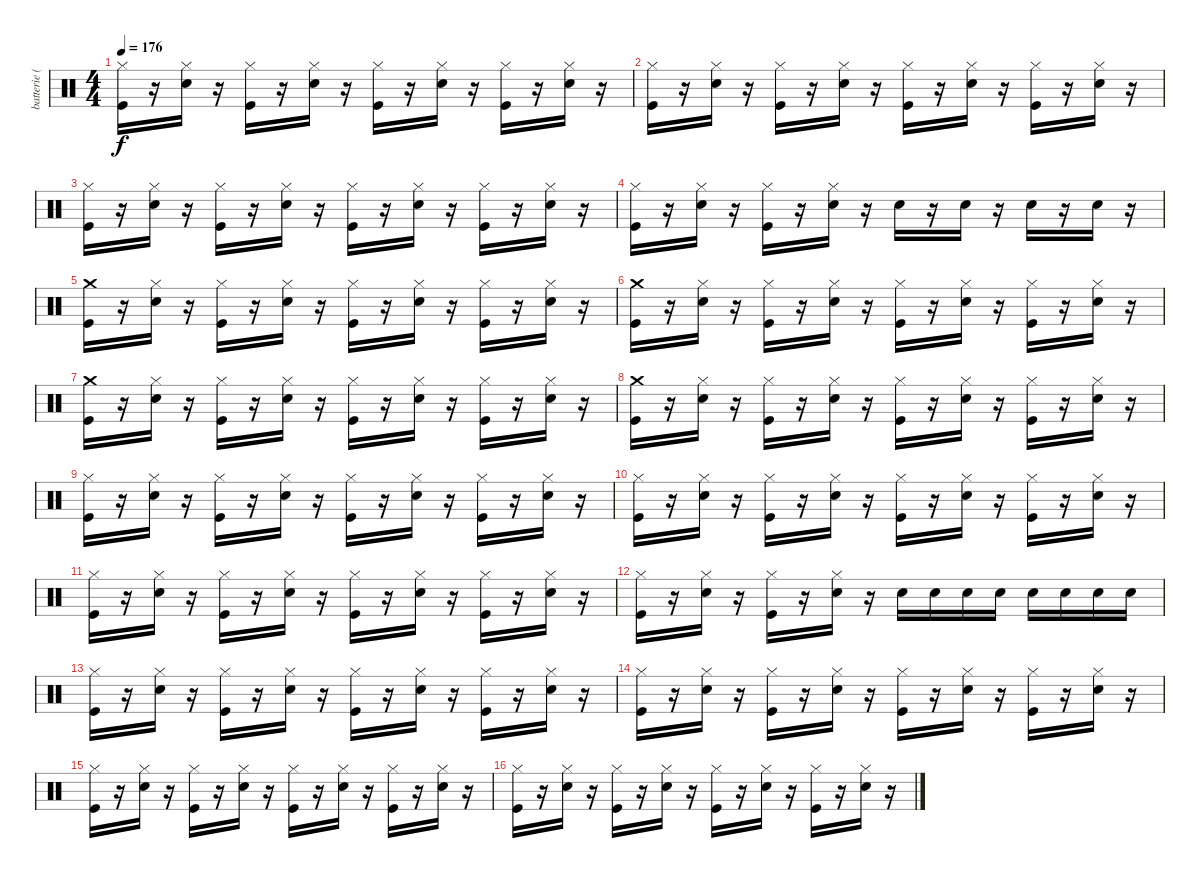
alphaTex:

\track ("batterie ( Jeff Nelson )" "batterie (") {instrument percussion}
\staff {score}
\articulation defaults
\ts (4 4)
\tempo 176
\clef neutral
\ks c
("Hi-Hat (closed)" "Kick (hit)").16{dy f} r.16 ("Hi-Hat (closed)" "Snare (hit) 2").16 r.16 ("Hi-Hat (closed)" "Kick (hit)").16 r.16 ("Hi-Hat (closed)" "Snare (hit) 2").16 r.16 ("Hi-Hat (closed)" "Kick (hit)").16 r.16 ("Hi-Hat (closed)" "Snare (hit) 2").16 r.16 ("Hi-Hat (closed)" "Kick (hit)").16 r.16 ("Hi-Hat (closed)" "Snare (hit) 2").16 r.16 |
("Hi-Hat (closed)" "Kick (hit)").16 r.16 ("Hi-Hat (closed)" "Snare (hit) 2").16 r.16 ("Hi-Hat (closed)" "Kick (hit)").16 r.16 ("Hi-Hat (closed)" "Snare (hit) 2").16 r.16 ("Hi-Hat (closed)" "Kick (hit)").16 r.16 ("Hi-Hat (closed)" "Snare (hit) 2").16 r.16 ("Hi-Hat (closed)" "Kick (hit)").16 r.16 ("Hi-Hat (closed)" "Snare (hit) 2").16 r.16 |
("Hi-Hat (closed)" "Kick (hit)").16 r.16 ("Hi-Hat (closed)" "Snare (hit) 2").16 r.16 ("Hi-Hat (closed)" "Kick (hit)").16 r.16 ("Hi-Hat (closed)" "Snare (hit) 2").16 r.16 ("Hi-Hat (closed)" "Kick (hit)").16 r.16 ("Hi-Hat (closed)" "Snare (hit) 2").16 r.16 ("Hi-Hat (closed)" "Kick (hit)").16 r.16 ("Hi-Hat (closed)" "Snare (hit) 2").16 r.16 |
("Hi-Hat (closed)" "Kick (hit)").16 r.16 ("Hi-Hat (closed)" "Snare (hit) 2").16 r.16 ("Hi-Hat (closed)" "Kick (hit)").16 r.16 ("Hi-Hat (closed)" "Snare (hit) 2").16 r.16 "Snare (hit) 2".16 r.16 "Snare (hit) 2".16 r.16 "Snare (hit) 2".16 r.16 "Snare (hit) 2".16 r.16 |
("Crash medium (hit)" "Kick (hit)").16 r.16 ("Hi-Hat (closed)" "Snare (hit) 2").16 r.16 ("Hi-Hat (closed)" "Kick (hit)").16 r.16 ("Hi-Hat (closed)" "Snare (hit) 2").16 r.16 ("Hi-Hat (closed)" "Kick (hit)").16 r.16 ("Hi-Hat (closed)" "Snare (hit) 2").16 r.16 ("Hi-Hat (closed)" "Kick (hit)").16 r.16 ("Hi-Hat (closed)" "Snare (hit) 2").16 r.16 |
("Crash medium (hit)" "Kick (hit)").16 r.16 ("Hi-Hat (closed)" "Snare (hit) 2").16 r.16 ("Hi-Hat (closed)" "Kick (hit)").16 r.16 ("Hi-Hat (closed)" "Snare (hit) 2").16 r.16 ("Hi-Hat (closed)" "Kick (hit)").16 r.16 ("Hi-Hat (closed)" "Snare (hit) 2").16 r.16 ("Hi-Hat (closed)" "Kick (hit)").16 r.16 ("Hi-Hat (closed)" "Snare (hit) 2").16 r.16 |
("Crash medium (hit)" "Kick (hit)").16 r.16 ("Hi-Hat (closed)" "Snare (hit) 2").16 r.16 ("Hi-Hat (closed)" "Kick (hit)").16 r.16 ("Hi-Hat (closed)" "Snare (hit) 2").16 r.16 ("Hi-Hat (closed)" "Kick (hit)").16 r.16 ("Hi-Hat (closed)" "Snare (hit) 2").16 r.16 ("Hi-Hat (closed)" "Kick (hit)").16 r.16 ("Hi-Hat (closed)" "Snare (hit) 2").16 r.16 |
("Crash medium (hit)" "Kick (hit)").16 r.16 ("Hi-Hat (closed)" "Snare (hit) 2").16 r.16 ("Hi-Hat (closed)" "Kick (hit)").16 r.16 ("Hi-Hat (closed)" "Snare (hit) 2").16 r.16 ("Hi-Hat (closed)" "Kick (hit)").16 r.16 ("Hi-Hat (closed)" "Snare (hit) 2").16 r.16 ("Hi-Hat (closed)" "Kick (hit)").16 r.16 ("Hi-Hat (closed)" "Snare (hit) 2").16 r.16 |
("Hi-Hat (closed)" "Kick (hit)").16 r.16 ("Hi-Hat (closed)" "Snare (hit) 2").16 r.16 ("Hi-Hat (closed)" "Kick (hit)").16 r.16 ("Hi-Hat (closed)" "Snare (hit) 2").16 r.16 ("Hi-Hat (closed)" "Kick (hit)").16 r.16 ("Hi-Hat (closed)" "Snare (hit) 2").16 r.16 ("Hi-Hat (closed)" "Kick (hit)").16 r.16 ("Hi-Hat (closed)" "Snare (hit) 2").16 r.16 |
("Hi-Hat (closed)" "Kick (hit)").16 r.16 ("Hi-Hat (closed)" "Snare (hit) 2").16 r.16 ("Hi-Hat (closed)" "Kick (hit)").16 r.16 ("Hi-Hat (closed)" "Snare (hit) 2").16 r.16 ("Hi-Hat (closed)" "Kick (hit)").16 r.16 ("Hi-Hat (closed)" "Snare (hit) 2").16 r.16 ("Hi-Hat (closed)" "Kick (hit)").16 r.16 ("Hi-Hat (closed)" "Snare (hit) 2").16 r.16 |
("Hi-Hat (closed)" "Kick (hit)").16 r.16 ("Hi-Hat (closed)" "Snare (hit) 2").16 r.16 ("Hi-Hat (closed)" "Kick (hit)").16 r.16 ("Hi-Hat (closed)" "Snare (hit) 2").16 r.16 ("Hi-Hat (closed)" "Kick (hit)").16 r.16 ("Hi-Hat (closed)" "Snare (hit) 2").16 r.16 ("Hi-Hat (closed)" "Kick (hit)").16 r.16 ("Hi-Hat (closed)" "Snare (hit) 2").16 r.16 |
("Hi-Hat (closed)" "Kick (hit)").16 r.16 ("Hi-Hat (closed)" "Snare (hit) 2").16 r.16 ("Hi-Hat (closed)" "Kick (hit)").16 r.16 ("Hi-Hat (closed)" "Snare (hit) 2").16 r.16 "Snare (hit) 2".16 "Snare (hit) 2".16 "Snare (hit) 2".16 "Snare (hit) 2".16 "Snare (hit) 2".16 "Snare (hit) 2".16 "Snare (hit) 2".16 "Snare (hit) 2".16 |
("Hi-Hat (closed)" "Kick (hit)").16 r.16 ("Hi-Hat (closed)" "Snare (hit) 2").16 r.16 ("Hi-Hat (closed)" "Kick (hit)").16 r.16 ("Hi-Hat (closed)" "Snare (hit) 2").16 r.16 ("Hi-Hat (closed)" "Kick (hit)").16 r.16 ("Hi-Hat (closed)" "Snare (hit) 2").16 r.16 ("Hi-Hat (closed)" "Kick (hit)").16 r.16 ("Hi-Hat (closed)" "Snare (hit) 2").16 r.16 |
("Hi-Hat (closed)" "Kick (hit)").16 r.16 ("Hi-Hat (closed)" "Snare (hit) 2").16 r.16 ("Hi-Hat (closed)" "Kick (hit)").16 r.16 ("Hi-Hat (closed)" "Snare (hit) 2").16 r.16 ("Hi-Hat (closed)" "Kick (hit)").16 r.16 ("Hi-Hat (closed)" "Snare (hit) 2").16 r.16 ("Hi-Hat (closed)" "Kick (hit)").16 r.16 ("Hi-Hat (closed)" "Snare (hit) 2").16 r.16 |
("Hi-Hat (closed)" "Kick (hit)").16 r.16 ("Hi-Hat (closed)" "Snare (hit) 2").16 r.16 ("Hi-Hat (closed)" "Kick (hit)").16 r.16 ("Hi-Hat (closed)" "Snare (hit) 2").16 r.16 ("Hi-Hat (closed)" "Kick (hit)").16 r.16 ("Hi-Hat (closed)" "Snare (hit) 2").16 r.16 ("Hi-Hat (closed)" "Kick (hit)").16 r.16 ("Hi-Hat (closed)" "Snare (hit) 2").16 r.16 |
("Hi-Hat (closed)" "Kick (hit)").16 r.16 ("Hi-Hat (closed)" "Snare (hit) 2").16 r.16 ("Hi-Hat (closed)" "Kick (hit)").16 r.16 ("Hi-Hat (closed)" "Snare (hit) 2").16 r.16 ("Hi-Hat (closed)" "Kick (hit)").16 r.16 ("Hi-Hat (closed)" "Snare (hit) 2").16 r.16 ("Hi-Hat (closed)" "Kick (hit)").16 r.16 ("Hi-Hat (closed)" "Snare (hit) 2").16 r.16
